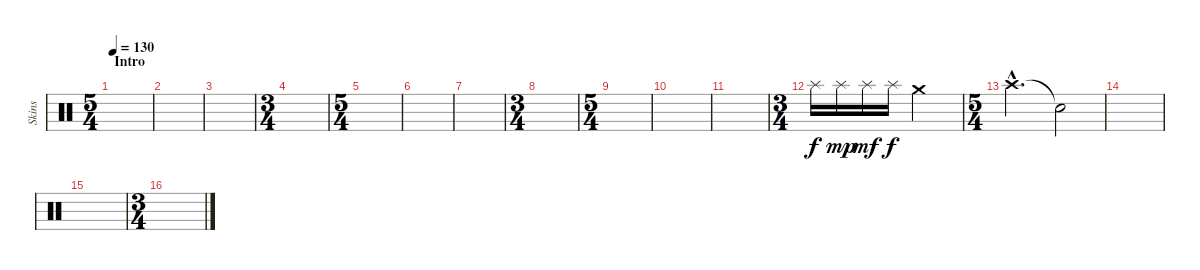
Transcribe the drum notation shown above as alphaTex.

\track ("Skins" "Skins") {instrument percussion}
\staff {score}
\articulation defaults
\ts (5 4)
\section ("" "Intro")
\tempo 130
\clef neutral
\ks c
|
|
|
\ts (3 4)
|
\ts (5 4)
|
|
|
\ts (3 4)
|
\ts (5 4)
|
|
|
\ts (3 4)
"Splash (hit)".16 "Splash (hit)".16{dy mp} "Splash (hit)".16{dy mf} "Splash (hit)".16{dy f} "Crash medium (hit)".2 |
\ts (5 4)
"Crash high (hit)"{hac}.2{d} "Snare (hit)"{t}.2 |
|
|
\ts (3 4)
